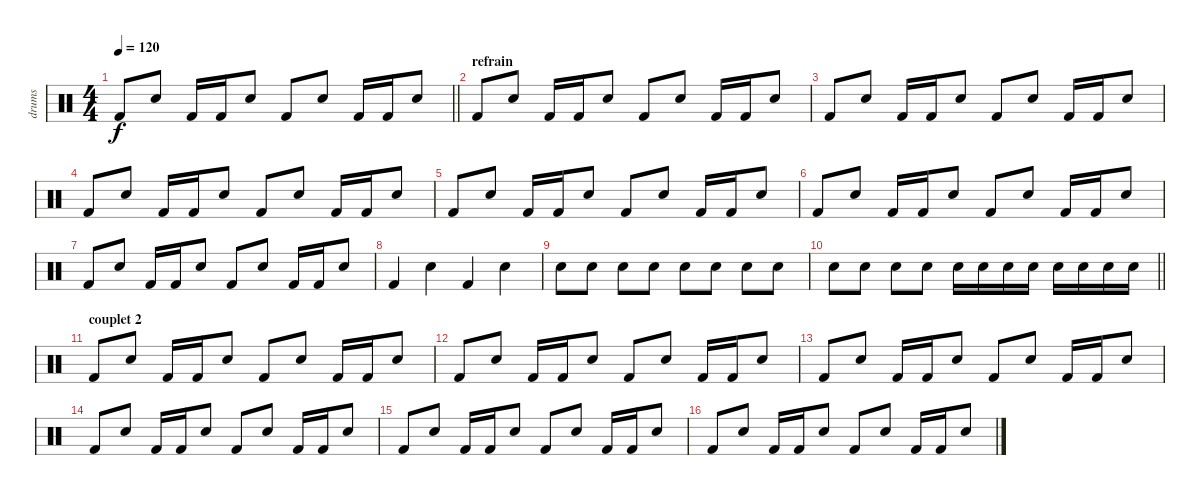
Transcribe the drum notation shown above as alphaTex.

\track ("drums" "drums") {instrument percussion}
\staff {score}
\articulation defaults
\ts (4 4)
\tempo 120
\clef neutral
\barLineRight lightlight
\ks c "Kick (hit) 2".8{dy f} "Snare (hit) 2".8 "Kick (hit) 2".16 "Kick (hit) 2".16 "Snare (hit) 2".8 "Kick (hit) 2".8 "Snare (hit) 2".8 "Kick (hit) 2".16 "Kick (hit) 2".16 "Snare (hit) 2".8
|
\section ("" "refrain")
"Kick (hit) 2".8 "Snare (hit) 2".8 "Kick (hit) 2".16 "Kick (hit) 2".16 "Snare (hit) 2".8 "Kick (hit) 2".8 "Snare (hit) 2".8 "Kick (hit) 2".16 "Kick (hit) 2".16 "Snare (hit) 2".8 |
"Kick (hit) 2".8 "Snare (hit) 2".8 "Kick (hit) 2".16 "Kick (hit) 2".16 "Snare (hit) 2".8 "Kick (hit) 2".8 "Snare (hit) 2".8 "Kick (hit) 2".16 "Kick (hit) 2".16 "Snare (hit) 2".8 |
"Kick (hit) 2".8 "Snare (hit) 2".8 "Kick (hit) 2".16 "Kick (hit) 2".16 "Snare (hit) 2".8 "Kick (hit) 2".8 "Snare (hit) 2".8 "Kick (hit) 2".16 "Kick (hit) 2".16 "Snare (hit) 2".8 |
"Kick (hit) 2".8 "Snare (hit) 2".8 "Kick (hit) 2".16 "Kick (hit) 2".16 "Snare (hit) 2".8 "Kick (hit) 2".8 "Snare (hit) 2".8 "Kick (hit) 2".16 "Kick (hit) 2".16 "Snare (hit) 2".8 |
"Kick (hit) 2".8 "Snare (hit) 2".8 "Kick (hit) 2".16 "Kick (hit) 2".16 "Snare (hit) 2".8 "Kick (hit) 2".8 "Snare (hit) 2".8 "Kick (hit) 2".16 "Kick (hit) 2".16 "Snare (hit) 2".8 |
"Kick (hit) 2".8 "Snare (hit) 2".8 "Kick (hit) 2".16 "Kick (hit) 2".16 "Snare (hit) 2".8 "Kick (hit) 2".8 "Snare (hit) 2".8 "Kick (hit) 2".16 "Kick (hit) 2".16 "Snare (hit) 2".8 |
"Kick (hit) 2".4 "Snare (hit) 2".4 "Kick (hit) 2".4 "Snare (hit) 2".4 |
"Snare (hit) 2".8 "Snare (hit) 2".8 "Snare (hit) 2".8 "Snare (hit) 2".8 "Snare (hit) 2".8 "Snare (hit) 2".8 "Snare (hit) 2".8 "Snare (hit) 2".8 |
\barLineRight lightlight "Snare (hit) 2".8 "Snare (hit) 2".8 "Snare (hit) 2".8 "Snare (hit) 2".8 "Snare (hit) 2".16 "Snare (hit) 2".16 "Snare (hit) 2".16 "Snare (hit) 2".16 "Snare (hit) 2".16 "Snare (hit) 2".16 "Snare (hit) 2".16 "Snare (hit) 2".16
|
\section ("" "couplet 2")
"Kick (hit) 2".8 "Snare (hit) 2".8 "Kick (hit) 2".16 "Kick (hit) 2".16 "Snare (hit) 2".8 "Kick (hit) 2".8 "Snare (hit) 2".8 "Kick (hit) 2".16 "Kick (hit) 2".16 "Snare (hit) 2".8 |
"Kick (hit) 2".8 "Snare (hit) 2".8 "Kick (hit) 2".16 "Kick (hit) 2".16 "Snare (hit) 2".8 "Kick (hit) 2".8 "Snare (hit) 2".8 "Kick (hit) 2".16 "Kick (hit) 2".16 "Snare (hit) 2".8 |
"Kick (hit) 2".8 "Snare (hit) 2".8 "Kick (hit) 2".16 "Kick (hit) 2".16 "Snare (hit) 2".8 "Kick (hit) 2".8 "Snare (hit) 2".8 "Kick (hit) 2".16 "Kick (hit) 2".16 "Snare (hit) 2".8 |
"Kick (hit) 2".8 "Snare (hit) 2".8 "Kick (hit) 2".16 "Kick (hit) 2".16 "Snare (hit) 2".8 "Kick (hit) 2".8 "Snare (hit) 2".8 "Kick (hit) 2".16 "Kick (hit) 2".16 "Snare (hit) 2".8 |
"Kick (hit) 2".8 "Snare (hit) 2".8 "Kick (hit) 2".16 "Kick (hit) 2".16 "Snare (hit) 2".8 "Kick (hit) 2".8 "Snare (hit) 2".8 "Kick (hit) 2".16 "Kick (hit) 2".16 "Snare (hit) 2".8 |
"Kick (hit) 2".8 "Snare (hit) 2".8 "Kick (hit) 2".16 "Kick (hit) 2".16 "Snare (hit) 2".8 "Kick (hit) 2".8 "Snare (hit) 2".8 "Kick (hit) 2".16 "Kick (hit) 2".16 "Snare (hit) 2".8
